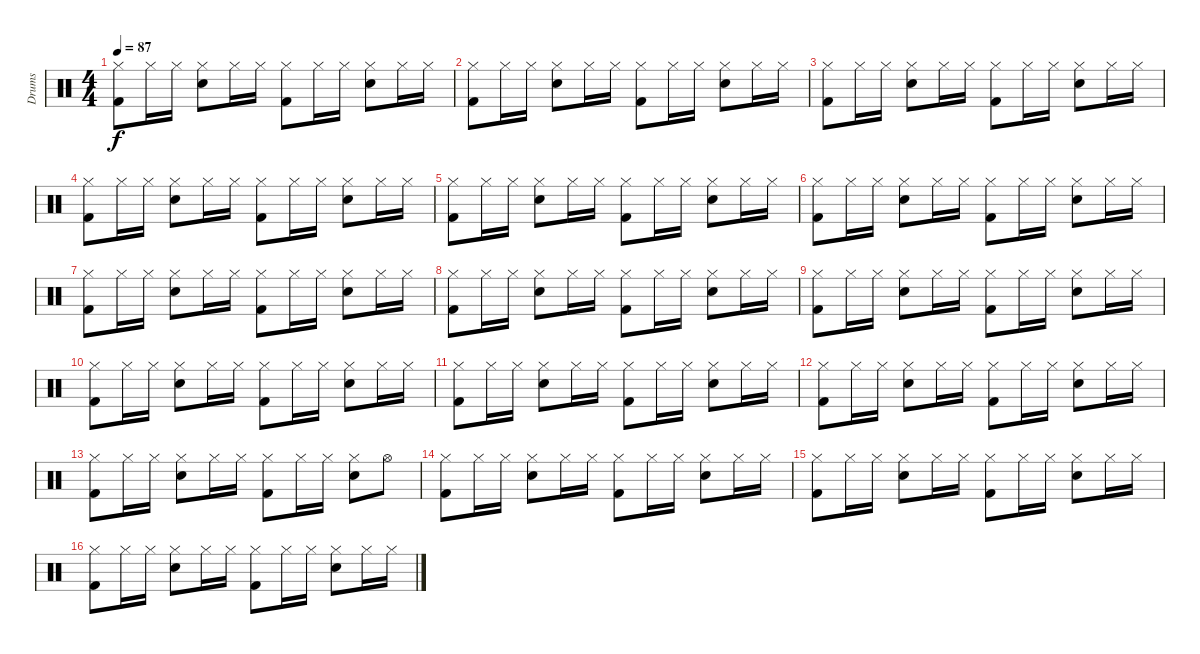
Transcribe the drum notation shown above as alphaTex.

\track ("Drums" "Drums") {instrument percussion}
\staff {score}
\articulation defaults
\ts (4 4)
\tempo 87
\clef neutral
\ks c
("Hi-Hat (closed)" "Kick (hit) 2").8{dy f} "Hi-Hat (closed)".16 "Hi-Hat (closed)".16 ("Hi-Hat (closed)" "Snare (hit) 2").8 "Hi-Hat (closed)".16 "Hi-Hat (closed)".16 ("Hi-Hat (closed)" "Kick (hit) 2").8 "Hi-Hat (closed)".16 "Hi-Hat (closed)".16 ("Hi-Hat (closed)" "Snare (hit) 2").8 "Hi-Hat (closed)".16 "Hi-Hat (closed)".16 |
("Hi-Hat (closed)" "Kick (hit) 2").8 "Hi-Hat (closed)".16 "Hi-Hat (closed)".16 ("Hi-Hat (closed)" "Snare (hit) 2").8 "Hi-Hat (closed)".16 "Hi-Hat (closed)".16 ("Hi-Hat (closed)" "Kick (hit) 2").8 "Hi-Hat (closed)".16 "Hi-Hat (closed)".16 ("Hi-Hat (closed)" "Snare (hit) 2").8 "Hi-Hat (closed)".16 "Hi-Hat (closed)".16 |
("Hi-Hat (closed)" "Kick (hit) 2").8 "Hi-Hat (closed)".16 "Hi-Hat (closed)".16 ("Hi-Hat (closed)" "Snare (hit) 2").8 "Hi-Hat (closed)".16 "Hi-Hat (closed)".16 ("Hi-Hat (closed)" "Kick (hit) 2").8 "Hi-Hat (closed)".16 "Hi-Hat (closed)".16 ("Hi-Hat (closed)" "Snare (hit) 2").8 "Hi-Hat (closed)".16 "Hi-Hat (closed)".16 |
("Hi-Hat (closed)" "Kick (hit) 2").8 "Hi-Hat (closed)".16 "Hi-Hat (closed)".16 ("Hi-Hat (closed)" "Snare (hit) 2").8 "Hi-Hat (closed)".16 "Hi-Hat (closed)".16 ("Hi-Hat (closed)" "Kick (hit) 2").8 "Hi-Hat (closed)".16 "Hi-Hat (closed)".16 ("Hi-Hat (closed)" "Snare (hit) 2").8 "Hi-Hat (closed)".16 "Hi-Hat (closed)".16 |
("Hi-Hat (closed)" "Kick (hit) 2").8 "Hi-Hat (closed)".16 "Hi-Hat (closed)".16 ("Hi-Hat (closed)" "Snare (hit) 2").8 "Hi-Hat (closed)".16 "Hi-Hat (closed)".16 ("Hi-Hat (closed)" "Kick (hit) 2").8 "Hi-Hat (closed)".16 "Hi-Hat (closed)".16 ("Hi-Hat (closed)" "Snare (hit) 2").8 "Hi-Hat (closed)".16 "Hi-Hat (closed)".16 |
("Hi-Hat (closed)" "Kick (hit) 2").8 "Hi-Hat (closed)".16 "Hi-Hat (closed)".16 ("Hi-Hat (closed)" "Snare (hit) 2").8 "Hi-Hat (closed)".16 "Hi-Hat (closed)".16 ("Hi-Hat (closed)" "Kick (hit) 2").8 "Hi-Hat (closed)".16 "Hi-Hat (closed)".16 ("Hi-Hat (closed)" "Snare (hit) 2").8 "Hi-Hat (closed)".16 "Hi-Hat (closed)".16 |
("Hi-Hat (closed)" "Kick (hit) 2").8 "Hi-Hat (closed)".16 "Hi-Hat (closed)".16 ("Hi-Hat (closed)" "Snare (hit) 2").8 "Hi-Hat (closed)".16 "Hi-Hat (closed)".16 ("Hi-Hat (closed)" "Kick (hit) 2").8 "Hi-Hat (closed)".16 "Hi-Hat (closed)".16 ("Hi-Hat (closed)" "Snare (hit) 2").8 "Hi-Hat (closed)".16 "Hi-Hat (closed)".16 |
("Hi-Hat (closed)" "Kick (hit) 2").8 "Hi-Hat (closed)".16 "Hi-Hat (closed)".16 ("Hi-Hat (closed)" "Snare (hit) 2").8 "Hi-Hat (closed)".16 "Hi-Hat (closed)".16 ("Hi-Hat (closed)" "Kick (hit) 2").8 "Hi-Hat (closed)".16 "Hi-Hat (closed)".16 ("Hi-Hat (closed)" "Snare (hit) 2").8 "Hi-Hat (closed)".16 "Hi-Hat (closed)".16 |
("Hi-Hat (closed)" "Kick (hit) 2").8 "Hi-Hat (closed)".16 "Hi-Hat (closed)".16 ("Hi-Hat (closed)" "Snare (hit) 2").8 "Hi-Hat (closed)".16 "Hi-Hat (closed)".16 ("Hi-Hat (closed)" "Kick (hit) 2").8 "Hi-Hat (closed)".16 "Hi-Hat (closed)".16 ("Hi-Hat (closed)" "Snare (hit) 2").8 "Hi-Hat (closed)".16 "Hi-Hat (closed)".16 |
("Hi-Hat (closed)" "Kick (hit) 2").8 "Hi-Hat (closed)".16 "Hi-Hat (closed)".16 ("Hi-Hat (closed)" "Snare (hit) 2").8 "Hi-Hat (closed)".16 "Hi-Hat (closed)".16 ("Hi-Hat (closed)" "Kick (hit) 2").8 "Hi-Hat (closed)".16 "Hi-Hat (closed)".16 ("Hi-Hat (closed)" "Snare (hit) 2").8 "Hi-Hat (closed)".16 "Hi-Hat (closed)".16 |
("Hi-Hat (closed)" "Kick (hit) 2").8 "Hi-Hat (closed)".16 "Hi-Hat (closed)".16 ("Hi-Hat (closed)" "Snare (hit) 2").8 "Hi-Hat (closed)".16 "Hi-Hat (closed)".16 ("Hi-Hat (closed)" "Kick (hit) 2").8 "Hi-Hat (closed)".16 "Hi-Hat (closed)".16 ("Hi-Hat (closed)" "Snare (hit) 2").8 "Hi-Hat (closed)".16 "Hi-Hat (closed)".16 |
("Hi-Hat (closed)" "Kick (hit) 2").8 "Hi-Hat (closed)".16 "Hi-Hat (closed)".16 ("Hi-Hat (closed)" "Snare (hit) 2").8 "Hi-Hat (closed)".16 "Hi-Hat (closed)".16 ("Hi-Hat (closed)" "Kick (hit) 2").8 "Hi-Hat (closed)".16 "Hi-Hat (closed)".16 ("Hi-Hat (closed)" "Snare (hit) 2").8 "Hi-Hat (closed)".16 "Hi-Hat (closed)".16 |
("Hi-Hat (closed)" "Kick (hit) 2").8 "Hi-Hat (closed)".16 "Hi-Hat (closed)".16 ("Hi-Hat (closed)" "Snare (hit) 2").8 "Hi-Hat (closed)".16 "Hi-Hat (closed)".16 ("Hi-Hat (closed)" "Kick (hit) 2").8 "Hi-Hat (closed)".16 "Hi-Hat (closed)".16 ("Hi-Hat (closed)" "Snare (hit) 2").8 "Hi-Hat (open)".8 |
("Hi-Hat (closed)" "Kick (hit) 2").8 "Hi-Hat (closed)".16 "Hi-Hat (closed)".16 ("Hi-Hat (closed)" "Snare (hit) 2").8 "Hi-Hat (closed)".16 "Hi-Hat (closed)".16 ("Hi-Hat (closed)" "Kick (hit) 2").8 "Hi-Hat (closed)".16 "Hi-Hat (closed)".16 ("Hi-Hat (closed)" "Snare (hit) 2").8 "Hi-Hat (closed)".16 "Hi-Hat (closed)".16 |
("Hi-Hat (closed)" "Kick (hit) 2").8 "Hi-Hat (closed)".16 "Hi-Hat (closed)".16 ("Hi-Hat (closed)" "Snare (hit) 2").8 "Hi-Hat (closed)".16 "Hi-Hat (closed)".16 ("Hi-Hat (closed)" "Kick (hit) 2").8 "Hi-Hat (closed)".16 "Hi-Hat (closed)".16 ("Hi-Hat (closed)" "Snare (hit) 2").8 "Hi-Hat (closed)".16 "Hi-Hat (closed)".16 |
("Hi-Hat (closed)" "Kick (hit) 2").8 "Hi-Hat (closed)".16 "Hi-Hat (closed)".16 ("Hi-Hat (closed)" "Snare (hit) 2").8 "Hi-Hat (closed)".16 "Hi-Hat (closed)".16 ("Hi-Hat (closed)" "Kick (hit) 2").8 "Hi-Hat (closed)".16 "Hi-Hat (closed)".16 ("Hi-Hat (closed)" "Snare (hit) 2").8 "Hi-Hat (closed)".16 "Hi-Hat (closed)".16
